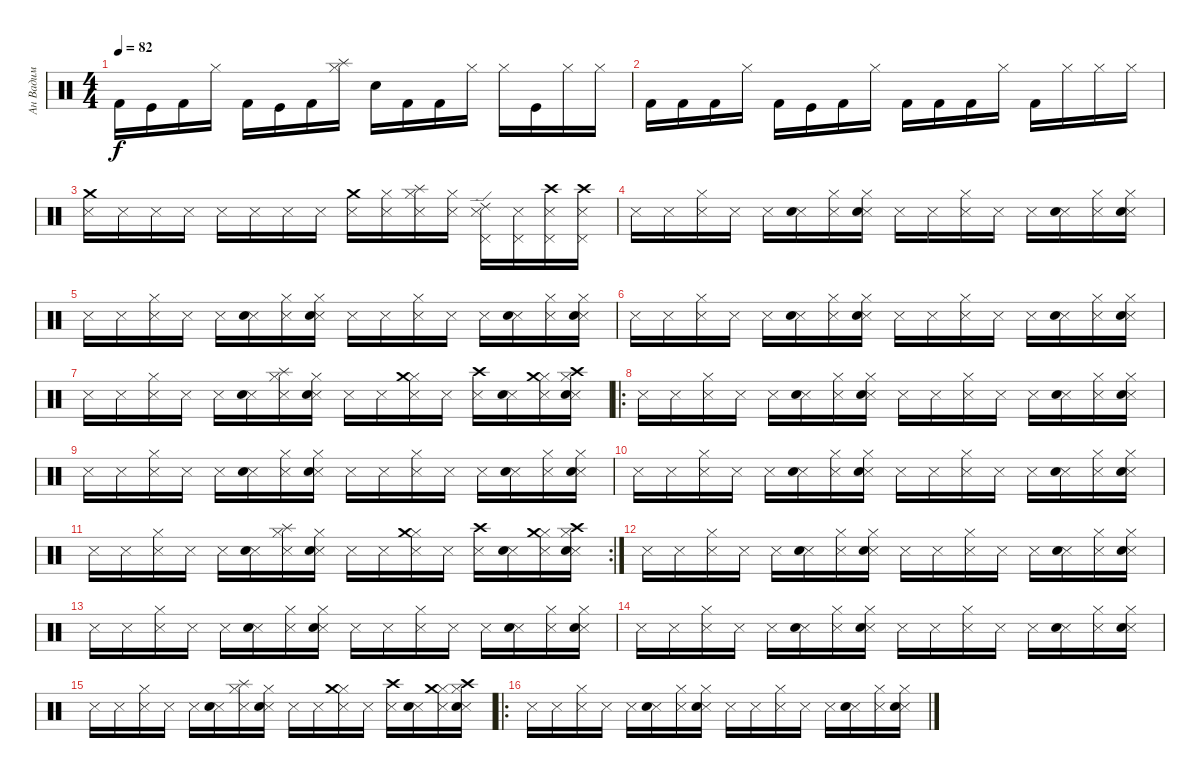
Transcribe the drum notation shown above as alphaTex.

\track ("Ан Вадим" "Ан Вадим") {instrument percussion}
\staff {score}
\articulation defaults
\ts (4 4)
\tempo 82
\clef neutral
\ks c "Kick (hit) 2".16{dy f} "Kick (hit)".16 "Kick (hit) 2".16 "Hi-Hat (closed)".16 "Kick (hit) 2".16 "Kick (hit)".16 "Kick (hit) 2".16
("Hi-Hat (closed)" "Splash (hit)").16 "Hand Clap (hit)".16 "Kick (hit) 2".16 "Kick (hit) 2".16 "Hi-Hat (closed)".16 "Hi-Hat (closed)".16 "Kick (hit)".16 "Hi-Hat (closed)".16 "Hi-Hat (closed)".16 |
"Kick (hit) 2".16 "Kick (hit) 2".16 "Kick (hit) 2".16 "Hi-Hat (closed)".16 "Kick (hit) 2".16 "Kick (hit)".16 "Kick (hit) 2".16 "Hi-Hat (closed)".16 "Kick (hit) 2".16 "Kick (hit) 2".16 "Kick (hit) 2".16 "Hi-Hat (closed)".16 "Kick (hit) 2".16 "Hi-Hat (closed)".16 "Hi-Hat (closed)".16 "Hi-Hat (closed)".16 |
("Snare (side stick) 3" "Crash medium (hit)").16 "Snare (side stick) 3".16 "Snare (side stick) 3".16 "Snare (side stick) 3".16 "Snare (side stick) 3".16 "Snare (side stick) 3".16 "Snare (side stick) 3".16 "Snare (side stick) 3".16 ("Snare (side stick) 3" "Crash medium (hit)").16 ("Snare (side stick) 3" "Hi-Hat (closed)").16 ("Snare (side stick) 3" "Hi-Hat (closed)" "Splash (hit)").16 ("Snare (side stick) 3" "Hi-Hat (closed)").16 ("Snare (side stick) 3" "Pedal Hi-Hat (hit)" "Ride (edge) 2").16 ("Snare (side stick) 3" "Pedal Hi-Hat (hit)").16 ("Snare (side stick) 3" "Pedal Hi-Hat (hit)" "Crash high (hit)").16 ("Snare (side stick) 3" "Pedal Hi-Hat (hit)" "Crash high (hit)").16 |
"Snare (side stick) 3".16 "Snare (side stick) 3".16 ("Snare (side stick) 3" "Hi-Hat (closed)").16 "Snare (side stick) 3".16 "Snare (side stick) 3".16 ("Snare (side stick) 3" "Snare (hit) 2").16 ("Snare (side stick) 3" "Hi-Hat (closed)").16 ("Snare (side stick) 3" "Hi-Hat (closed)" "Snare (hit) 2").16 "Snare (side stick) 3".16 "Snare (side stick) 3".16 ("Snare (side stick) 3" "Hi-Hat (closed)").16 "Snare (side stick) 3".16 "Snare (side stick) 3".16 ("Snare (side stick) 3" "Snare (hit) 2").16 ("Snare (side stick) 3" "Hi-Hat (closed)").16 ("Snare (side stick) 3" "Hi-Hat (closed)" "Snare (hit) 2").16 |
"Snare (side stick) 3".16 "Snare (side stick) 3".16 ("Snare (side stick) 3" "Hi-Hat (closed)").16 "Snare (side stick) 3".16 "Snare (side stick) 3".16 ("Snare (side stick) 3" "Snare (hit) 2").16 ("Snare (side stick) 3" "Hi-Hat (closed)").16 ("Snare (side stick) 3" "Hi-Hat (closed)" "Snare (hit) 2").16 "Snare (side stick) 3".16 "Snare (side stick) 3".16 ("Snare (side stick) 3" "Hi-Hat (closed)").16 "Snare (side stick) 3".16 "Snare (side stick) 3".16 ("Snare (side stick) 3" "Snare (hit) 2").16 ("Snare (side stick) 3" "Hi-Hat (closed)").16 ("Snare (side stick) 3" "Hi-Hat (closed)" "Snare (hit) 2").16 |
"Snare (side stick) 3".16 "Snare (side stick) 3".16 ("Snare (side stick) 3" "Hi-Hat (closed)").16 "Snare (side stick) 3".16 "Snare (side stick) 3".16 ("Snare (side stick) 3" "Snare (hit) 2").16 ("Snare (side stick) 3" "Hi-Hat (closed)").16 ("Snare (side stick) 3" "Hi-Hat (closed)" "Snare (hit) 2").16 "Snare (side stick) 3".16 "Snare (side stick) 3".16 ("Snare (side stick) 3" "Hi-Hat (closed)").16 "Snare (side stick) 3".16 "Snare (side stick) 3".16 ("Snare (side stick) 3" "Snare (hit) 2").16 ("Snare (side stick) 3" "Hi-Hat (closed)").16 ("Snare (side stick) 3" "Hi-Hat (closed)" "Snare (hit) 2").16 |
"Snare (side stick) 3".16 "Snare (side stick) 3".16 ("Snare (side stick) 3" "Hi-Hat (closed)").16 "Snare (side stick) 3".16 "Snare (side stick) 3".16 ("Snare (side stick) 3" "Snare (hit) 2").16 ("Snare (side stick) 3" "Hi-Hat (closed)" "Splash (hit)").16 ("Snare (side stick) 3" "Hi-Hat (closed)" "Snare (hit) 2").16 "Snare (side stick) 3".16 "Snare (side stick) 3".16 ("Snare (side stick) 3" "Hi-Hat (closed)" "Crash medium (hit)").16 "Snare (side stick) 3".16 ("Snare (side stick) 3" "Crash high (hit)").16 ("Snare (side stick) 3" "Snare (hit) 2").16 ("Snare (side stick) 3" "Hi-Hat (closed)" "Crash medium (hit)").16 ("Snare (side stick) 3" "Hi-Hat (closed)" "Snare (hit) 2" "Crash high (hit)").16 |
\ro "Snare (side stick) 3".16 "Snare (side stick) 3".16
("Snare (side stick) 3" "Hi-Hat (closed)").16 "Snare (side stick) 3".16 "Snare (side stick) 3".16 ("Snare (side stick) 3" "Snare (hit) 2").16 ("Snare (side stick) 3" "Hi-Hat (closed)").16 ("Snare (side stick) 3" "Hi-Hat (closed)" "Snare (hit) 2").16 "Snare (side stick) 3".16 "Snare (side stick) 3".16 ("Snare (side stick) 3" "Hi-Hat (closed)").16 "Snare (side stick) 3".16 "Snare (side stick) 3".16 ("Snare (side stick) 3" "Snare (hit) 2").16 ("Snare (side stick) 3" "Hi-Hat (closed)").16 ("Snare (side stick) 3" "Hi-Hat (closed)" "Snare (hit) 2").16 |
"Snare (side stick) 3".16 "Snare (side stick) 3".16 ("Snare (side stick) 3" "Hi-Hat (closed)").16 "Snare (side stick) 3".16 "Snare (side stick) 3".16 ("Snare (side stick) 3" "Snare (hit) 2").16 ("Snare (side stick) 3" "Hi-Hat (closed)").16 ("Snare (side stick) 3" "Hi-Hat (closed)" "Snare (hit) 2").16 "Snare (side stick) 3".16 "Snare (side stick) 3".16 ("Snare (side stick) 3" "Hi-Hat (closed)").16 "Snare (side stick) 3".16 "Snare (side stick) 3".16 ("Snare (side stick) 3" "Snare (hit) 2").16 ("Snare (side stick) 3" "Hi-Hat (closed)").16 ("Snare (side stick) 3" "Hi-Hat (closed)" "Snare (hit) 2").16 |
"Snare (side stick) 3".16 "Snare (side stick) 3".16 ("Snare (side stick) 3" "Hi-Hat (closed)").16 "Snare (side stick) 3".16 "Snare (side stick) 3".16 ("Snare (side stick) 3" "Snare (hit) 2").16 ("Snare (side stick) 3" "Hi-Hat (closed)").16 ("Snare (side stick) 3" "Hi-Hat (closed)" "Snare (hit) 2").16 "Snare (side stick) 3".16 "Snare (side stick) 3".16 ("Snare (side stick) 3" "Hi-Hat (closed)").16 "Snare (side stick) 3".16 "Snare (side stick) 3".16 ("Snare (side stick) 3" "Snare (hit) 2").16 ("Snare (side stick) 3" "Hi-Hat (closed)").16 ("Snare (side stick) 3" "Hi-Hat (closed)" "Snare (hit) 2").16 |
\rc 2 "Snare (side stick) 3".16 "Snare (side stick) 3".16
("Snare (side stick) 3" "Hi-Hat (closed)").16 "Snare (side stick) 3".16 "Snare (side stick) 3".16 ("Snare (side stick) 3" "Snare (hit) 2").16 ("Snare (side stick) 3" "Hi-Hat (closed)" "Splash (hit)").16 ("Snare (side stick) 3" "Hi-Hat (closed)" "Snare (hit) 2").16 "Snare (side stick) 3".16 "Snare (side stick) 3".16 ("Snare (side stick) 3" "Hi-Hat (closed)" "Crash medium (hit)").16 "Snare (side stick) 3".16 ("Snare (side stick) 3" "Crash high (hit)").16 ("Snare (side stick) 3" "Snare (hit) 2").16 ("Snare (side stick) 3" "Hi-Hat (closed)" "Crash medium (hit)").16 ("Snare (side stick) 3" "Hi-Hat (closed)" "Snare (hit) 2" "Crash high (hit)").16 |
"Snare (side stick) 3".16 "Snare (side stick) 3".16 ("Snare (side stick) 3" "Hi-Hat (closed)").16 "Snare (side stick) 3".16 "Snare (side stick) 3".16 ("Snare (side stick) 3" "Snare (hit) 2").16 ("Snare (side stick) 3" "Hi-Hat (closed)").16 ("Snare (side stick) 3" "Hi-Hat (closed)" "Snare (hit) 2").16 "Snare (side stick) 3".16 "Snare (side stick) 3".16 ("Snare (side stick) 3" "Hi-Hat (closed)").16 "Snare (side stick) 3".16 "Snare (side stick) 3".16 ("Snare (side stick) 3" "Snare (hit) 2").16 ("Snare (side stick) 3" "Hi-Hat (closed)").16 ("Snare (side stick) 3" "Hi-Hat (closed)" "Snare (hit) 2").16 |
"Snare (side stick) 3".16 "Snare (side stick) 3".16 ("Snare (side stick) 3" "Hi-Hat (closed)").16 "Snare (side stick) 3".16 "Snare (side stick) 3".16 ("Snare (side stick) 3" "Snare (hit) 2").16 ("Snare (side stick) 3" "Hi-Hat (closed)").16 ("Snare (side stick) 3" "Hi-Hat (closed)" "Snare (hit) 2").16 "Snare (side stick) 3".16 "Snare (side stick) 3".16 ("Snare (side stick) 3" "Hi-Hat (closed)").16 "Snare (side stick) 3".16 "Snare (side stick) 3".16 ("Snare (side stick) 3" "Snare (hit) 2").16 ("Snare (side stick) 3" "Hi-Hat (closed)").16 ("Snare (side stick) 3" "Hi-Hat (closed)" "Snare (hit) 2").16 |
"Snare (side stick) 3".16 "Snare (side stick) 3".16 ("Snare (side stick) 3" "Hi-Hat (closed)").16 "Snare (side stick) 3".16 "Snare (side stick) 3".16 ("Snare (side stick) 3" "Snare (hit) 2").16 ("Snare (side stick) 3" "Hi-Hat (closed)").16 ("Snare (side stick) 3" "Hi-Hat (closed)" "Snare (hit) 2").16 "Snare (side stick) 3".16 "Snare (side stick) 3".16 ("Snare (side stick) 3" "Hi-Hat (closed)").16 "Snare (side stick) 3".16 "Snare (side stick) 3".16 ("Snare (side stick) 3" "Snare (hit) 2").16 ("Snare (side stick) 3" "Hi-Hat (closed)").16 ("Snare (side stick) 3" "Hi-Hat (closed)" "Snare (hit) 2").16 |
"Snare (side stick) 3".16 "Snare (side stick) 3".16 ("Snare (side stick) 3" "Hi-Hat (closed)").16 "Snare (side stick) 3".16 "Snare (side stick) 3".16 ("Snare (side stick) 3" "Snare (hit) 2").16 ("Snare (side stick) 3" "Hi-Hat (closed)" "Splash (hit)").16 ("Snare (side stick) 3" "Hi-Hat (closed)" "Snare (hit) 2").16 "Snare (side stick) 3".16 "Snare (side stick) 3".16 ("Snare (side stick) 3" "Hi-Hat (closed)" "Crash medium (hit)").16 "Snare (side stick) 3".16 ("Snare (side stick) 3" "Crash high (hit)").16 ("Snare (side stick) 3" "Snare (hit) 2").16 ("Snare (side stick) 3" "Hi-Hat (closed)" "Crash medium (hit)").16 ("Snare (side stick) 3" "Hi-Hat (closed)" "Snare (hit) 2" "Crash high (hit)").16 |
\ro "Snare (side stick) 3".16 "Snare (side stick) 3".16
("Snare (side stick) 3" "Hi-Hat (closed)").16 "Snare (side stick) 3".16 "Snare (side stick) 3".16 ("Snare (side stick) 3" "Snare (hit) 2").16 ("Snare (side stick) 3" "Hi-Hat (closed)").16 ("Snare (side stick) 3" "Hi-Hat (closed)" "Snare (hit) 2").16 "Snare (side stick) 3".16 "Snare (side stick) 3".16 ("Snare (side stick) 3" "Hi-Hat (closed)").16 "Snare (side stick) 3".16 "Snare (side stick) 3".16 ("Snare (side stick) 3" "Snare (hit) 2").16 ("Snare (side stick) 3" "Hi-Hat (closed)").16 ("Snare (side stick) 3" "Hi-Hat (closed)" "Snare (hit) 2").16
